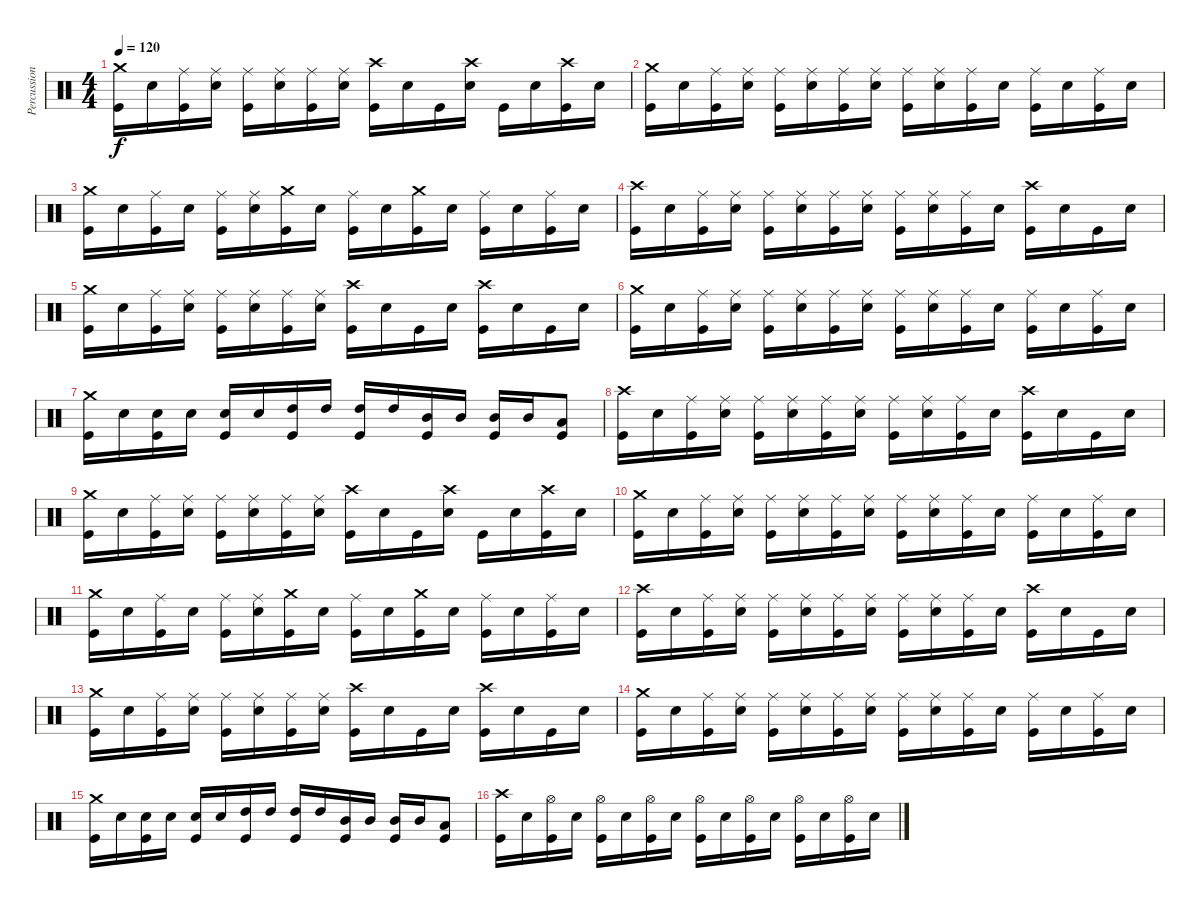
\track ("Percussioni" "Percussion") {instrument percussion}
\staff {score}
\articulation defaults
\ts (4 4)
\tempo 120
\clef neutral
\ks c
("Crash medium (hit)" "Kick (hit)").16{dy f} "Electric Snare (hit)".16 ("Ride (middle)" "Kick (hit)").16 ("Ride (middle)" "Electric Snare (hit)").16 ("Ride (middle)" "Kick (hit)").16 ("Ride (middle)" "Electric Snare (hit)").16 ("Ride (middle)" "Kick (hit)").16 ("Ride (middle)" "Electric Snare (hit)").16 ("Crash high (hit)" "Kick (hit)").16 "Electric Snare (hit)".16 "Kick (hit)".16 ("Crash high (hit)" "Electric Snare (hit)").16 "Kick (hit)".16 "Electric Snare (hit)".16 ("Crash high (hit)" "Kick (hit)").16 "Electric Snare (hit)".16 |
("Crash medium (hit)" "Kick (hit)").16 "Electric Snare (hit)".16 ("Ride (middle)" "Kick (hit)").16 ("Ride (middle)" "Electric Snare (hit)").16 ("Ride (middle)" "Kick (hit)").16 ("Ride (middle)" "Electric Snare (hit)").16 ("Ride (middle)" "Kick (hit)").16 ("Ride (middle)" "Electric Snare (hit)").16 ("Ride (middle)" "Kick (hit)").16 ("Ride (middle)" "Electric Snare (hit)").16 ("Ride (middle)" "Kick (hit)").16 "Electric Snare (hit)".16 ("Ride (middle)" "Kick (hit)").16 "Electric Snare (hit)".16 ("Ride (middle)" "Kick (hit)").16 "Electric Snare (hit)".16 |
("Crash medium (hit)" "Kick (hit)").16 "Electric Snare (hit)".16 ("Ride (middle)" "Kick (hit)").16 "Electric Snare (hit)".16 ("Ride (middle)" "Kick (hit)").16 ("Ride (middle)" "Electric Snare (hit)").16 ("Crash medium (hit)" "Kick (hit)").16 "Electric Snare (hit)".16 ("Ride (middle)" "Kick (hit)").16 "Electric Snare (hit)".16 ("Crash medium (hit)" "Kick (hit)").16 "Electric Snare (hit)".16 ("Ride (middle)" "Kick (hit)").16 "Electric Snare (hit)".16 ("Ride (middle)" "Kick (hit)").16 "Electric Snare (hit)".16 |
("Crash high (hit)" "Kick (hit)").16 "Electric Snare (hit)".16 ("Ride (middle)" "Kick (hit)").16 ("Ride (middle)" "Electric Snare (hit)").16 ("Ride (middle)" "Kick (hit)").16 ("Ride (middle)" "Electric Snare (hit)").16 ("Ride (middle)" "Kick (hit)").16 ("Ride (middle)" "Electric Snare (hit)").16 ("Ride (middle)" "Kick (hit)").16 ("Ride (middle)" "Electric Snare (hit)").16 ("Ride (middle)" "Kick (hit)").16 "Electric Snare (hit)".16 ("Crash high (hit)" "Kick (hit)").16 "Electric Snare (hit)".16 "Kick (hit)".16 "Electric Snare (hit)".16 |
("Crash medium (hit)" "Kick (hit)").16 "Electric Snare (hit)".16 ("Ride (middle)" "Kick (hit)").16 ("Ride (middle)" "Electric Snare (hit)").16 ("Ride (middle)" "Kick (hit)").16 ("Ride (middle)" "Electric Snare (hit)").16 ("Ride (middle)" "Kick (hit)").16 ("Ride (middle)" "Electric Snare (hit)").16 ("Crash high (hit)" "Kick (hit)").16 "Electric Snare (hit)".16 "Kick (hit)".16 "Electric Snare (hit)".16 ("Crash high (hit)" "Kick (hit)").16 "Electric Snare (hit)".16 "Kick (hit)".16 "Electric Snare (hit)".16 |
("Crash medium (hit)" "Kick (hit)").16 "Electric Snare (hit)".16 ("Ride (middle)" "Kick (hit)").16 ("Ride (middle)" "Electric Snare (hit)").16 ("Ride (middle)" "Kick (hit)").16 ("Ride (middle)" "Electric Snare (hit)").16 ("Ride (middle)" "Kick (hit)").16 ("Ride (middle)" "Electric Snare (hit)").16 ("Ride (middle)" "Kick (hit)").16 ("Ride (middle)" "Electric Snare (hit)").16 ("Ride (middle)" "Kick (hit)").16 "Electric Snare (hit)".16 ("Ride (middle)" "Kick (hit)").16 "Electric Snare (hit)".16 ("Ride (middle)" "Kick (hit)").16 "Electric Snare (hit)".16 |
("Crash medium (hit)" "Kick (hit)").16 "Electric Snare (hit)".16 ("Electric Snare (hit)" "Kick (hit)").16 "Electric Snare (hit)".16 ("Electric Snare (hit)" "Kick (hit)").16 "Electric Snare (hit)".16 ("High Tom (hit)" "Kick (hit)").16 "High Tom (hit)".16 ("High Tom (hit)" "Kick (hit)").16 "High Tom (hit)".16 ("Mid Tom (hit)" "Kick (hit)").16 "Mid Tom (hit)".16 ("Mid Tom (hit)" "Kick (hit)").16 "Mid Tom (hit)".16 ("Low Tom (hit)" "Kick (hit)").8 |
("Crash high (hit)" "Kick (hit)").16 "Electric Snare (hit)".16 ("Ride (middle)" "Kick (hit)").16 ("Ride (middle)" "Electric Snare (hit)").16 ("Ride (middle)" "Kick (hit)").16 ("Ride (middle)" "Electric Snare (hit)").16 ("Ride (middle)" "Kick (hit)").16 ("Ride (middle)" "Electric Snare (hit)").16 ("Ride (middle)" "Kick (hit)").16 ("Ride (middle)" "Electric Snare (hit)").16 ("Ride (middle)" "Kick (hit)").16 "Electric Snare (hit)".16 ("Crash high (hit)" "Kick (hit)").16 "Electric Snare (hit)".16 "Kick (hit)".16 "Electric Snare (hit)".16 |
("Crash medium (hit)" "Kick (hit)").16 "Electric Snare (hit)".16 ("Ride (middle)" "Kick (hit)").16 ("Ride (middle)" "Electric Snare (hit)").16 ("Ride (middle)" "Kick (hit)").16 ("Ride (middle)" "Electric Snare (hit)").16 ("Ride (middle)" "Kick (hit)").16 ("Ride (middle)" "Electric Snare (hit)").16 ("Crash high (hit)" "Kick (hit)").16 "Electric Snare (hit)".16 "Kick (hit)".16 ("Crash high (hit)" "Electric Snare (hit)").16 "Kick (hit)".16 "Electric Snare (hit)".16 ("Crash high (hit)" "Kick (hit)").16 "Electric Snare (hit)".16 |
("Crash medium (hit)" "Kick (hit)").16 "Electric Snare (hit)".16 ("Ride (middle)" "Kick (hit)").16 ("Ride (middle)" "Electric Snare (hit)").16 ("Ride (middle)" "Kick (hit)").16 ("Ride (middle)" "Electric Snare (hit)").16 ("Ride (middle)" "Kick (hit)").16 ("Ride (middle)" "Electric Snare (hit)").16 ("Ride (middle)" "Kick (hit)").16 ("Ride (middle)" "Electric Snare (hit)").16 ("Ride (middle)" "Kick (hit)").16 "Electric Snare (hit)".16 ("Ride (middle)" "Kick (hit)").16 "Electric Snare (hit)".16 ("Ride (middle)" "Kick (hit)").16 "Electric Snare (hit)".16 |
("Crash medium (hit)" "Kick (hit)").16 "Electric Snare (hit)".16 ("Ride (middle)" "Kick (hit)").16 "Electric Snare (hit)".16 ("Ride (middle)" "Kick (hit)").16 ("Ride (middle)" "Electric Snare (hit)").16 ("Crash medium (hit)" "Kick (hit)").16 "Electric Snare (hit)".16 ("Ride (middle)" "Kick (hit)").16 "Electric Snare (hit)".16 ("Crash medium (hit)" "Kick (hit)").16 "Electric Snare (hit)".16 ("Ride (middle)" "Kick (hit)").16 "Electric Snare (hit)".16 ("Ride (middle)" "Kick (hit)").16 "Electric Snare (hit)".16 |
("Crash high (hit)" "Kick (hit)").16 "Electric Snare (hit)".16 ("Ride (middle)" "Kick (hit)").16 ("Ride (middle)" "Electric Snare (hit)").16 ("Ride (middle)" "Kick (hit)").16 ("Ride (middle)" "Electric Snare (hit)").16 ("Ride (middle)" "Kick (hit)").16 ("Ride (middle)" "Electric Snare (hit)").16 ("Ride (middle)" "Kick (hit)").16 ("Ride (middle)" "Electric Snare (hit)").16 ("Ride (middle)" "Kick (hit)").16 "Electric Snare (hit)".16 ("Crash high (hit)" "Kick (hit)").16 "Electric Snare (hit)".16 "Kick (hit)".16 "Electric Snare (hit)".16 |
("Crash medium (hit)" "Kick (hit)").16 "Electric Snare (hit)".16 ("Ride (middle)" "Kick (hit)").16 ("Ride (middle)" "Electric Snare (hit)").16 ("Ride (middle)" "Kick (hit)").16 ("Ride (middle)" "Electric Snare (hit)").16 ("Ride (middle)" "Kick (hit)").16 ("Ride (middle)" "Electric Snare (hit)").16 ("Crash high (hit)" "Kick (hit)").16 "Electric Snare (hit)".16 "Kick (hit)".16 "Electric Snare (hit)".16 ("Crash high (hit)" "Kick (hit)").16 "Electric Snare (hit)".16 "Kick (hit)".16 "Electric Snare (hit)".16 |
("Crash medium (hit)" "Kick (hit)").16 "Electric Snare (hit)".16 ("Ride (middle)" "Kick (hit)").16 ("Ride (middle)" "Electric Snare (hit)").16 ("Ride (middle)" "Kick (hit)").16 ("Ride (middle)" "Electric Snare (hit)").16 ("Ride (middle)" "Kick (hit)").16 ("Ride (middle)" "Electric Snare (hit)").16 ("Ride (middle)" "Kick (hit)").16 ("Ride (middle)" "Electric Snare (hit)").16 ("Ride (middle)" "Kick (hit)").16 "Electric Snare (hit)".16 ("Ride (middle)" "Kick (hit)").16 "Electric Snare (hit)".16 ("Ride (middle)" "Kick (hit)").16 "Electric Snare (hit)".16 |
("Crash medium (hit)" "Kick (hit)").16 "Electric Snare (hit)".16 ("Electric Snare (hit)" "Kick (hit)").16 "Electric Snare (hit)".16 ("Electric Snare (hit)" "Kick (hit)").16 "Electric Snare (hit)".16 ("High Tom (hit)" "Kick (hit)").16 "High Tom (hit)".16 ("High Tom (hit)" "Kick (hit)").16 "High Tom (hit)".16 ("Mid Tom (hit)" "Kick (hit)").16 "Mid Tom (hit)".16 ("Mid Tom (hit)" "Kick (hit)").16 "Mid Tom (hit)".16 ("Low Tom (hit)" "Kick (hit)").8 |
("Crash high (hit)" "Kick (hit)").16 "Electric Snare (hit)".16 ("Hi-Hat (open)" "Kick (hit)").16 "Electric Snare (hit)".16 ("Hi-Hat (open)" "Kick (hit)").16 "Electric Snare (hit)".16 ("Hi-Hat (open)" "Kick (hit)").16 "Electric Snare (hit)".16 ("Hi-Hat (open)" "Kick (hit)").16 "Electric Snare (hit)".16 ("Hi-Hat (open)" "Kick (hit)").16 "Electric Snare (hit)".16 ("Hi-Hat (open)" "Kick (hit)").16 "Electric Snare (hit)".16 ("Hi-Hat (open)" "Kick (hit)").16 "Electric Snare (hit)".16
